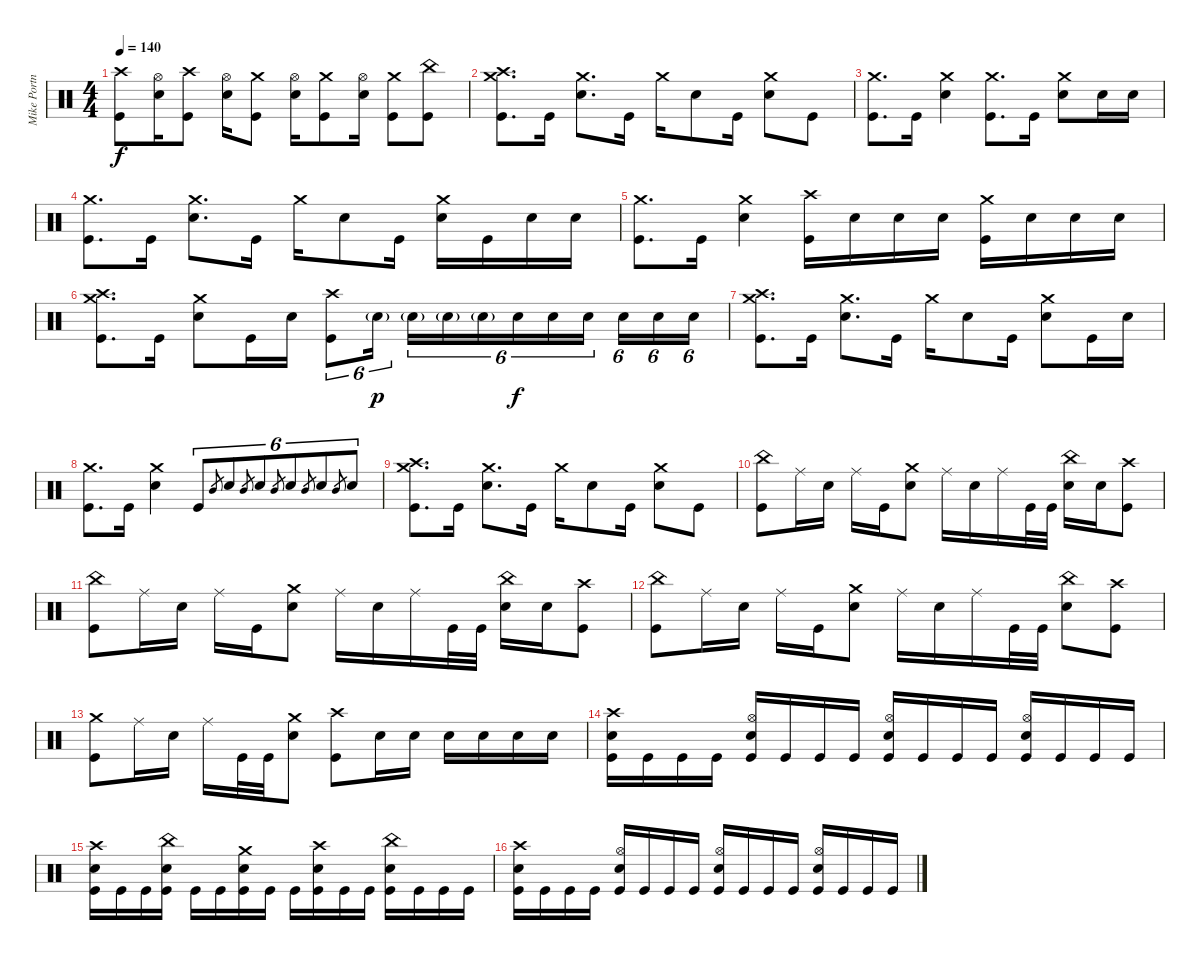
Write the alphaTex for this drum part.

\track ("Mike Portnoy" "Mike Portn") {instrument percussion}
\staff {score}
\articulation defaults
\ts (4 4)
\tempo 140
\clef neutral
\ks c
("Crash high (hit)" "Kick (hit)").8{dy f} ("Hi-Hat (open)" "Electric Snare (hit)").16 ("Crash high (hit)" "Kick (hit)").8 ("Hi-Hat (open)" "Electric Snare (hit)").16 ("Crash medium (hit)" "Kick (hit)").8 ("Hi-Hat (open)" "Electric Snare (hit)").16 ("Crash medium (hit)" "Kick (hit)").8 ("Hi-Hat (open)" "Electric Snare (hit)").16 ("Crash medium (hit)" "Kick (hit)").8 ("China (hit)" "Kick (hit)").8 |
("Crash high (hit)" "Crash medium (hit)" "Kick (hit)").8{d} "Kick (hit)".16 ("Crash medium (hit)" "Electric Snare (hit)").8{d} "Kick (hit)".16 "Crash medium (hit)".16 "Electric Snare (hit)".8 "Kick (hit)".16 ("Crash medium (hit)" "Electric Snare (hit)").8 "Kick (hit)".8 |
("Crash medium (hit)" "Kick (hit)").8{d} "Kick (hit)".16 ("Crash medium (hit)" "Electric Snare (hit)").4 ("Crash medium (hit)" "Kick (hit)").8{d} "Kick (hit)".16 ("Crash medium (hit)" "Electric Snare (hit)").8 "Electric Snare (hit)".16 "Electric Snare (hit)".16 |
("Crash medium (hit)" "Kick (hit)").8{d} "Kick (hit)".16 ("Crash medium (hit)" "Electric Snare (hit)").8{d} "Kick (hit)".16 "Crash medium (hit)".16 "Electric Snare (hit)".8 "Kick (hit)".16 ("Crash medium (hit)" "Electric Snare (hit)").16 "Kick (hit)".16 "Electric Snare (hit)".16 "Electric Snare (hit)".16 |
("Crash medium (hit)" "Kick (hit)").8{d} "Kick (hit)".16 ("Crash medium (hit)" "Electric Snare (hit)").4 ("Crash high (hit)" "Kick (hit)").16 "Electric Snare (hit)".16 "Electric Snare (hit)".16 "Electric Snare (hit)".16 ("Crash medium (hit)" "Kick (hit)").16 "Electric Snare (hit)".16 "Electric Snare (hit)".16 "Electric Snare (hit)".16 |
("Crash high (hit)" "Crash medium (hit)" "Kick (hit)").8{d} "Kick (hit)".16 ("Crash medium (hit)" "Electric Snare (hit)").8 "Kick (hit)".16 "Electric Snare (hit)".16 ("Crash high (hit)" "Kick (hit)").8{tu (6 4)} "Electric Snare (hit)"{g}.16{tu (6 4) dy p} "Electric Snare (hit)"{g}.16{tu (6 4)} "Electric Snare (hit)"{g}.16{tu (6 4)} "Electric Snare (hit)"{g}.16{tu (6 4)} "Electric Snare (hit)".16{tu (6 4) dy f} "Electric Snare (hit)".16{tu (6 4)} "Electric Snare (hit)".16{tu (6 4)} "Electric Snare (hit)".16{tu (6 4)} "Electric Snare (hit)".16{tu (6 4)} "Electric Snare (hit)".16{tu (6 4)} |
("Crash medium (hit)" "Crash high (hit)" "Kick (hit)").8{d} "Kick (hit)".16 ("Crash medium (hit)" "Electric Snare (hit)").8{d} "Kick (hit)".16 "Crash medium (hit)".16 "Electric Snare (hit)".8 "Kick (hit)".16 ("Crash medium (hit)" "Electric Snare (hit)").8 "Kick (hit)".16 "Electric Snare (hit)".16 |
("Crash medium (hit)" "Kick (hit)").8{d} "Kick (hit)".16 ("Crash medium (hit)" "Electric Snare (hit)").4 "Kick (hit)".8{tu (6 4)} "Mid Tom (hit)".8{gr} "Electric Snare (hit)".8{tu (6 4)} "Mid Tom (hit)".8{gr} "Electric Snare (hit)".8{tu (6 4)} "Mid Tom (hit)".8{gr} "Electric Snare (hit)".8{tu (6 4)} "Mid Tom (hit)".8{gr} "Electric Snare (hit)".8{tu (6 4)} "Mid Tom (hit)".8{gr} "Electric Snare (hit)".8{tu (6 4)} |
("Crash medium (hit)" "Crash high (hit)" "Kick (hit)").8{d} "Kick (hit)".16 ("Crash medium (hit)" "Electric Snare (hit)").8{d} "Kick (hit)".16 "Crash medium (hit)".16 "Electric Snare (hit)".8 "Kick (hit)".16 ("Crash medium (hit)" "Electric Snare (hit)").8 "Kick (hit)".8 |
("China (hit)" "Kick (hit)").8 "Ride (middle)".16 "Electric Snare (hit)".16 "Ride (middle)".16 "Kick (hit)".16 ("Crash medium (hit)" "Electric Snare (hit)").8 "Ride (middle)".16 "Electric Snare (hit)".16 "Ride (middle)".16 "Kick (hit)".32 "Kick (hit)".32 ("China (hit)" "Electric Snare (hit)").16 "Electric Snare (hit)".16 ("Crash high (hit)" "Kick (hit)").8 |
("China (hit)" "Kick (hit)").8 "Ride (middle)".16 "Electric Snare (hit)".16 "Ride (middle)".16 "Kick (hit)".16 ("Crash medium (hit)" "Electric Snare (hit)").8 "Ride (middle)".16 "Electric Snare (hit)".16 "Ride (middle)".16 "Kick (hit)".32 "Kick (hit)".32 ("China (hit)" "Electric Snare (hit)").16 "Electric Snare (hit)".16 ("Crash high (hit)" "Kick (hit)").8 |
("China (hit)" "Kick (hit)").8 "Ride (middle)".16 "Electric Snare (hit)".16 "Ride (middle)".16 "Kick (hit)".16 ("Crash medium (hit)" "Electric Snare (hit)").8 "Ride (middle)".16 "Electric Snare (hit)".16 "Ride (middle)".16 "Kick (hit)".32 "Kick (hit)".32 ("China (hit)" "Electric Snare (hit)").8 ("Crash high (hit)" "Kick (hit)").8 |
("Crash medium (hit)" "Kick (hit)").8 "Ride (middle)".16 "Electric Snare (hit)".16 "Ride (middle)".16 "Kick (hit)".32 "Kick (hit)".32 ("Crash medium (hit)" "Electric Snare (hit)").8 ("Crash high (hit)" "Kick (hit)").8 "Electric Snare (hit)".16 "Electric Snare (hit)".16 "Electric Snare (hit)".16 "Electric Snare (hit)".16 "Electric Snare (hit)".16 "Electric Snare (hit)".16 |
("Crash high (hit)" "Electric Snare (hit)" "Kick (hit)").16 "Kick (hit)".16 "Kick (hit)".16 "Kick (hit)".16 ("Hi-Hat (open)" "Electric Snare (hit)" "Kick (hit)").16 "Kick (hit)".16 "Kick (hit)".16 "Kick (hit)".16 ("Hi-Hat (open)" "Electric Snare (hit)" "Kick (hit)").16 "Kick (hit)".16 "Kick (hit)".16 "Kick (hit)".16 ("Hi-Hat (open)" "Electric Snare (hit)" "Kick (hit)").16 "Kick (hit)".16 "Kick (hit)".16 "Kick (hit)".16 |
("Crash high (hit)" "Electric Snare (hit)" "Kick (hit)").16 "Kick (hit)".16 "Kick (hit)".16 ("China (hit)" "Electric Snare (hit)" "Kick (hit)").16 "Kick (hit)".16 "Kick (hit)".16 ("Crash medium (hit)" "Electric Snare (hit)" "Kick (hit)").16 "Kick (hit)".16 "Kick (hit)".16 ("Crash high (hit)" "Electric Snare (hit)" "Kick (hit)").16 "Kick (hit)".16 "Kick (hit)".16 ("China (hit)" "Electric Snare (hit)" "Kick (hit)").16 "Kick (hit)".16 "Kick (hit)".16 "Kick (hit)".16 |
("Crash high (hit)" "Electric Snare (hit)" "Kick (hit)").16 "Kick (hit)".16 "Kick (hit)".16 "Kick (hit)".16 ("Hi-Hat (open)" "Electric Snare (hit)" "Kick (hit)").16 "Kick (hit)".16 "Kick (hit)".16 "Kick (hit)".16 ("Hi-Hat (open)" "Electric Snare (hit)" "Kick (hit)").16 "Kick (hit)".16 "Kick (hit)".16 "Kick (hit)".16 ("Hi-Hat (open)" "Electric Snare (hit)" "Kick (hit)").16 "Kick (hit)".16 "Kick (hit)".16 "Kick (hit)".16
